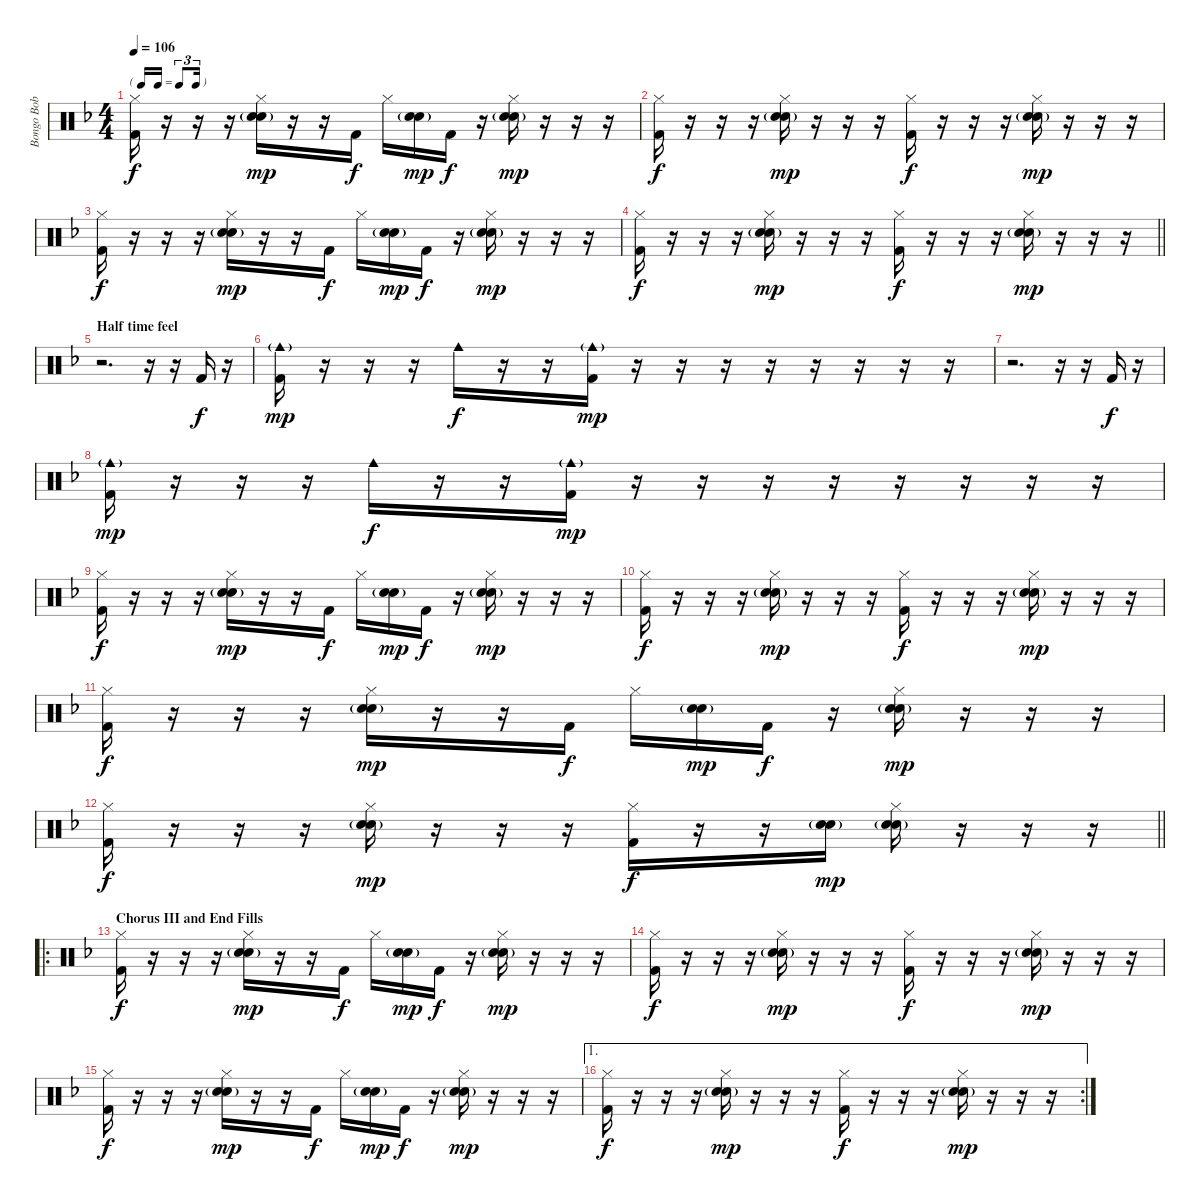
\track ("Bongo Bob Smith (Drums)" "Bongo Bob ") {instrument percussion}
\staff {score}
\articulation defaults
\ts (4 4)
\tf triplet16th
\tempo 106
\clef neutral
\ks f
("Hi-Hat (closed)" "Kick (hit) 2").16{dy f} r.16 r.16 r.16 ("Hi-Hat (closed)" "Snare (hit) 2"{g} "Electric Snare (hit)").16{dy mp} r.16 r.16 "Kick (hit) 2".16{dy f} "Hi-Hat (closed)".16 ("Snare (hit) 2"{g} "Electric Snare (hit)").16{dy mp} "Kick (hit) 2".16{dy f} r.16 ("Hi-Hat (closed)" "Snare (hit) 2"{g} "Electric Snare (hit)").16{dy mp} r.16 r.16 r.16 |
("Hi-Hat (closed)" "Kick (hit) 2").16{dy f} r.16 r.16 r.16 ("Hi-Hat (closed)" "Snare (hit) 2"{g} "Electric Snare (hit)").16{dy mp} r.16 r.16 r.16 ("Hi-Hat (closed)" "Kick (hit) 2").16{dy f} r.16 r.16 r.16 ("Hi-Hat (closed)" "Snare (hit) 2"{g} "Electric Snare (hit)").16{dy mp} r.16 r.16 r.16 |
("Hi-Hat (closed)" "Kick (hit) 2").16{dy f} r.16 r.16 r.16 ("Hi-Hat (closed)" "Snare (hit) 2"{g} "Electric Snare (hit)").16{dy mp} r.16 r.16 "Kick (hit) 2".16{dy f} "Hi-Hat (closed)".16 ("Snare (hit) 2"{g} "Electric Snare (hit)").16{dy mp} "Kick (hit) 2".16{dy f} r.16 ("Hi-Hat (closed)" "Snare (hit) 2"{g} "Electric Snare (hit)").16{dy mp} r.16 r.16 r.16 |
\barLineRight lightlight
("Hi-Hat (closed)" "Kick (hit) 2").16{dy f} r.16 r.16 r.16 ("Hi-Hat (closed)" "Snare (hit) 2"{g} "Electric Snare (hit)").16{dy mp} r.16 r.16 r.16 ("Hi-Hat (closed)" "Kick (hit) 2").16{dy f} r.16 r.16 r.16 ("Hi-Hat (closed)" "Snare (hit) 2"{g} "Electric Snare (hit)").16{dy mp} r.16 r.16 r.16 |
\section ("" "Half time feel")
r.2{d} r.16 r.16 "Kick (hit) 2".16{dy f} r.16 |
("Cowbell medium (hit)"{g} "Kick (hit) 2").16{dy mp} r.16 r.16 r.16 "Cowbell medium (hit)".16{dy f} r.16 r.16 ("Cowbell medium (hit)"{g} "Kick (hit) 2").16{dy mp} r.16 r.16 r.16 r.16 r.16 r.16 r.16 r.16 |
r.2{d} r.16 r.16 "Kick (hit) 2".16{dy f} r.16 |
("Cowbell medium (hit)"{g} "Kick (hit) 2").16{dy mp} r.16 r.16 r.16 "Cowbell medium (hit)".16{dy f} r.16 r.16 ("Cowbell medium (hit)"{g} "Kick (hit) 2").16{dy mp} r.16 r.16 r.16 r.16 r.16 r.16 r.16 r.16 |
("Hi-Hat (closed)" "Kick (hit) 2").16{dy f} r.16 r.16 r.16 ("Hi-Hat (closed)" "Snare (hit) 2"{g} "Electric Snare (hit)").16{dy mp} r.16 r.16 "Kick (hit) 2".16{dy f} "Hi-Hat (closed)".16 ("Snare (hit) 2"{g} "Electric Snare (hit)").16{dy mp} "Kick (hit) 2".16{dy f} r.16 ("Hi-Hat (closed)" "Snare (hit) 2"{g} "Electric Snare (hit)").16{dy mp} r.16 r.16 r.16 |
("Hi-Hat (closed)" "Kick (hit) 2").16{dy f} r.16 r.16 r.16 ("Hi-Hat (closed)" "Snare (hit) 2"{g} "Electric Snare (hit)").16{dy mp} r.16 r.16 r.16 ("Hi-Hat (closed)" "Kick (hit) 2").16{dy f} r.16 r.16 r.16 ("Hi-Hat (closed)" "Snare (hit) 2"{g} "Electric Snare (hit)").16{dy mp} r.16 r.16 r.16 |
("Hi-Hat (closed)" "Kick (hit) 2").16{dy f} r.16 r.16 r.16 ("Hi-Hat (closed)" "Snare (hit) 2"{g} "Electric Snare (hit)").16{dy mp} r.16 r.16 "Kick (hit) 2".16{dy f} "Hi-Hat (closed)".16 ("Snare (hit) 2"{g} "Electric Snare (hit)").16{dy mp} "Kick (hit) 2".16{dy f} r.16 ("Hi-Hat (closed)" "Snare (hit) 2"{g} "Electric Snare (hit)").16{dy mp} r.16 r.16 r.16 |
\barLineRight lightlight
("Hi-Hat (closed)" "Kick (hit) 2").16{dy f} r.16 r.16 r.16 ("Hi-Hat (closed)" "Snare (hit) 2"{g} "Electric Snare (hit)").16{dy mp} r.16 r.16 r.16 ("Hi-Hat (closed)" "Kick (hit) 2").16{dy f} r.16 r.16 ("Snare (hit) 2"{g} "Electric Snare (hit)").16{dy mp} ("Hi-Hat (closed)" "Snare (hit) 2"{g} "Electric Snare (hit)").16 r.16 r.16 r.16 |
\ro
\section ("" "Chorus III and End Fills")
("Hi-Hat (closed)" "Kick (hit) 2").16{dy f} r.16 r.16 r.16 ("Hi-Hat (closed)" "Snare (hit) 2"{g} "Electric Snare (hit)").16{dy mp} r.16 r.16 "Kick (hit) 2".16{dy f} "Hi-Hat (closed)".16 ("Snare (hit) 2"{g} "Electric Snare (hit)").16{dy mp} "Kick (hit) 2".16{dy f} r.16 ("Hi-Hat (closed)" "Snare (hit) 2"{g} "Electric Snare (hit)").16{dy mp} r.16 r.16 r.16 |
("Hi-Hat (closed)" "Kick (hit) 2").16{dy f} r.16 r.16 r.16 ("Hi-Hat (closed)" "Snare (hit) 2"{g} "Electric Snare (hit)").16{dy mp} r.16 r.16 r.16 ("Hi-Hat (closed)" "Kick (hit) 2").16{dy f} r.16 r.16 r.16 ("Hi-Hat (closed)" "Snare (hit) 2"{g} "Electric Snare (hit)").16{dy mp} r.16 r.16 r.16 |
("Hi-Hat (closed)" "Kick (hit) 2").16{dy f} r.16 r.16 r.16 ("Hi-Hat (closed)" "Snare (hit) 2"{g} "Electric Snare (hit)").16{dy mp} r.16 r.16 "Kick (hit) 2".16{dy f} "Hi-Hat (closed)".16 ("Snare (hit) 2"{g} "Electric Snare (hit)").16{dy mp} "Kick (hit) 2".16{dy f} r.16 ("Hi-Hat (closed)" "Snare (hit) 2"{g} "Electric Snare (hit)").16{dy mp} r.16 r.16 r.16 |
\ae 1
\rc 2
("Hi-Hat (closed)" "Kick (hit) 2").16{dy f} r.16 r.16 r.16 ("Hi-Hat (closed)" "Snare (hit) 2"{g} "Electric Snare (hit)").16{dy mp} r.16 r.16 r.16 ("Hi-Hat (closed)" "Kick (hit) 2").16{dy f} r.16 r.16 r.16 ("Hi-Hat (closed)" "Snare (hit) 2"{g} "Electric Snare (hit)").16{dy mp} r.16 r.16 r.16
